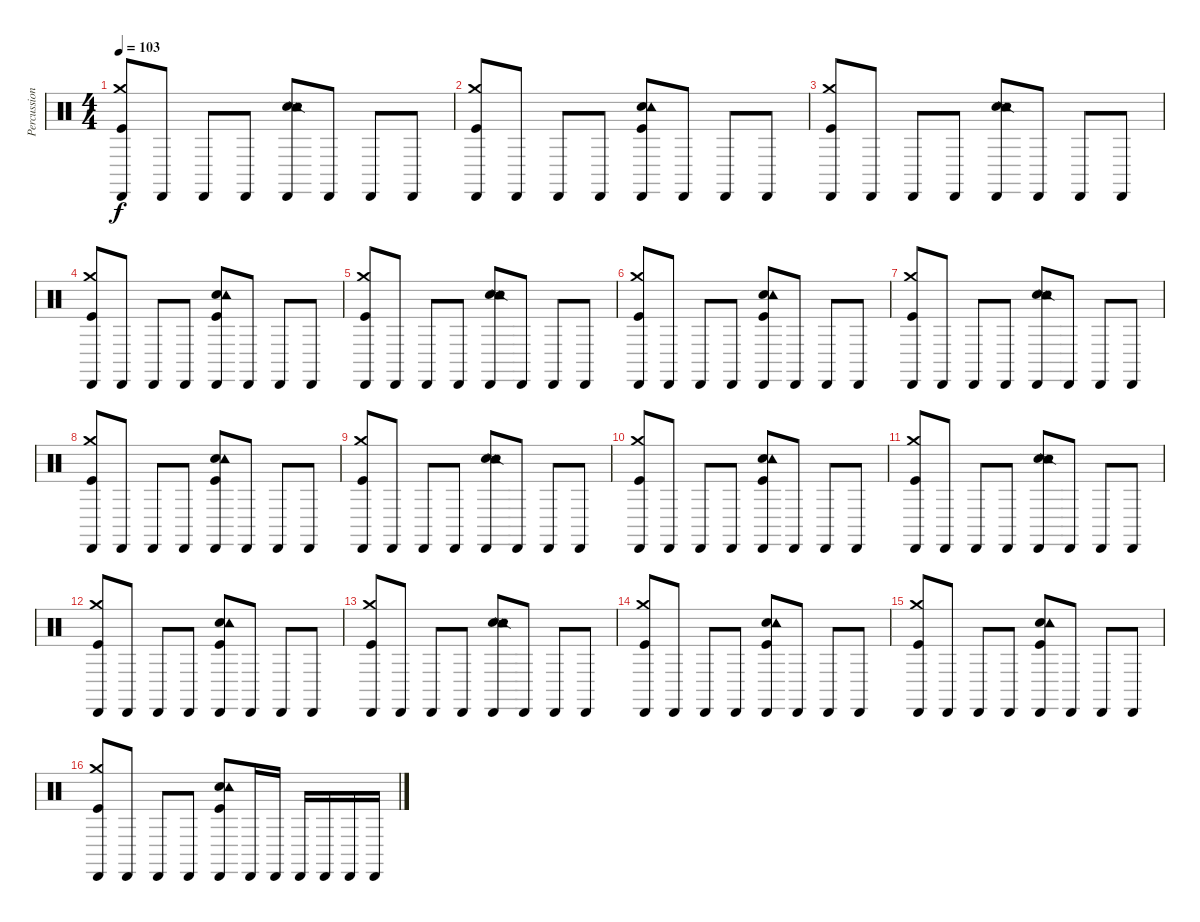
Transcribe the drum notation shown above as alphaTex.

\track ("Percussion" "Percussion") {instrument percussion}
\staff {score}
\articulation defaults
\ts (4 4)
\tempo 103
\clef neutral
\ks c
("Cabasa (hit)" "Kick (hit)" "Crash medium (hit)").8{dy f} "Cabasa (hit)".8 "Cabasa (hit)".8 "Cabasa (hit)".8 ("Cabasa (hit)" "Hand Clap (hit)" "Snare (side stick) 2" "Tambourine (hit)").8 "Cabasa (hit)".8 "Cabasa (hit)".8 "Cabasa (hit)".8 |
("Cabasa (hit)" "Kick (hit)" "Crash medium (hit)").8 "Cabasa (hit)".8 "Cabasa (hit)".8 "Cabasa (hit)".8 ("Cabasa (hit)" "Hand Clap (hit)" "Kick (hit)" "Tambourine (hit)").8 "Cabasa (hit)".8 "Cabasa (hit)".8 "Cabasa (hit)".8 |
("Cabasa (hit)" "Kick (hit)" "Crash medium (hit)").8 "Cabasa (hit)".8 "Cabasa (hit)".8 "Cabasa (hit)".8 ("Cabasa (hit)" "Hand Clap (hit)" "Snare (side stick) 2" "Tambourine (hit)").8 "Cabasa (hit)".8 "Cabasa (hit)".8 "Cabasa (hit)".8 |
("Cabasa (hit)" "Kick (hit)" "Crash medium (hit)").8 "Cabasa (hit)".8 "Cabasa (hit)".8 "Cabasa (hit)".8 ("Cabasa (hit)" "Hand Clap (hit)" "Kick (hit)" "Tambourine (hit)").8 "Cabasa (hit)".8 "Cabasa (hit)".8 "Cabasa (hit)".8 |
("Cabasa (hit)" "Kick (hit)" "Crash medium (hit)").8 "Cabasa (hit)".8 "Cabasa (hit)".8 "Cabasa (hit)".8 ("Cabasa (hit)" "Hand Clap (hit)" "Snare (side stick) 2" "Tambourine (hit)").8 "Cabasa (hit)".8 "Cabasa (hit)".8 "Cabasa (hit)".8 |
("Cabasa (hit)" "Kick (hit)" "Crash medium (hit)").8 "Cabasa (hit)".8 "Cabasa (hit)".8 "Cabasa (hit)".8 ("Cabasa (hit)" "Hand Clap (hit)" "Kick (hit)" "Tambourine (hit)").8 "Cabasa (hit)".8 "Cabasa (hit)".8 "Cabasa (hit)".8 |
("Cabasa (hit)" "Kick (hit)" "Crash medium (hit)").8 "Cabasa (hit)".8 "Cabasa (hit)".8 "Cabasa (hit)".8 ("Cabasa (hit)" "Hand Clap (hit)" "Snare (side stick) 2" "Tambourine (hit)").8 "Cabasa (hit)".8 "Cabasa (hit)".8 "Cabasa (hit)".8 |
("Cabasa (hit)" "Kick (hit)" "Crash medium (hit)").8 "Cabasa (hit)".8 "Cabasa (hit)".8 "Cabasa (hit)".8 ("Cabasa (hit)" "Hand Clap (hit)" "Kick (hit)" "Tambourine (hit)").8 "Cabasa (hit)".8 "Cabasa (hit)".8 "Cabasa (hit)".8 |
("Cabasa (hit)" "Kick (hit)" "Crash medium (hit)").8 "Cabasa (hit)".8 "Cabasa (hit)".8 "Cabasa (hit)".8 ("Cabasa (hit)" "Hand Clap (hit)" "Snare (side stick) 2" "Tambourine (hit)").8 "Cabasa (hit)".8 "Cabasa (hit)".8 "Cabasa (hit)".8 |
("Cabasa (hit)" "Kick (hit)" "Crash medium (hit)").8 "Cabasa (hit)".8 "Cabasa (hit)".8 "Cabasa (hit)".8 ("Cabasa (hit)" "Hand Clap (hit)" "Kick (hit)" "Tambourine (hit)").8 "Cabasa (hit)".8 "Cabasa (hit)".8 "Cabasa (hit)".8 |
("Cabasa (hit)" "Kick (hit)" "Crash medium (hit)").8 "Cabasa (hit)".8 "Cabasa (hit)".8 "Cabasa (hit)".8 ("Cabasa (hit)" "Hand Clap (hit)" "Snare (side stick) 2" "Tambourine (hit)").8 "Cabasa (hit)".8 "Cabasa (hit)".8 "Cabasa (hit)".8 |
("Cabasa (hit)" "Kick (hit)" "Crash medium (hit)").8 "Cabasa (hit)".8 "Cabasa (hit)".8 "Cabasa (hit)".8 ("Cabasa (hit)" "Hand Clap (hit)" "Kick (hit)" "Tambourine (hit)").8 "Cabasa (hit)".8 "Cabasa (hit)".8 "Cabasa (hit)".8 |
("Cabasa (hit)" "Kick (hit)" "Crash medium (hit)").8 "Cabasa (hit)".8 "Cabasa (hit)".8 "Cabasa (hit)".8 ("Cabasa (hit)" "Hand Clap (hit)" "Snare (side stick) 2" "Tambourine (hit)").8 "Cabasa (hit)".8 "Cabasa (hit)".8 "Cabasa (hit)".8 |
("Cabasa (hit)" "Kick (hit)" "Crash medium (hit)").8 "Cabasa (hit)".8 "Cabasa (hit)".8 "Cabasa (hit)".8 ("Cabasa (hit)" "Hand Clap (hit)" "Kick (hit)" "Tambourine (hit)").8 "Cabasa (hit)".8 "Cabasa (hit)".8 "Cabasa (hit)".8 |
("Cabasa (hit)" "Kick (hit)" "Crash medium (hit)").8 "Cabasa (hit)".8 "Cabasa (hit)".8 "Cabasa (hit)".8 ("Cabasa (hit)" "Hand Clap (hit)" "Kick (hit)" "Tambourine (hit)").8 "Cabasa (hit)".8 "Cabasa (hit)".8 "Cabasa (hit)".8 |
("Cabasa (hit)" "Kick (hit)" "Crash medium (hit)").8 "Cabasa (hit)".8 "Cabasa (hit)".8 "Cabasa (hit)".8 ("Cabasa (hit)" "Hand Clap (hit)" "Kick (hit)" "Tambourine (hit)").8 "Cabasa (hit)".16 "Cabasa (hit)".16 "Cabasa (hit)".16 "Cabasa (hit)".16 "Cabasa (hit)".16 "Cabasa (hit)".16
